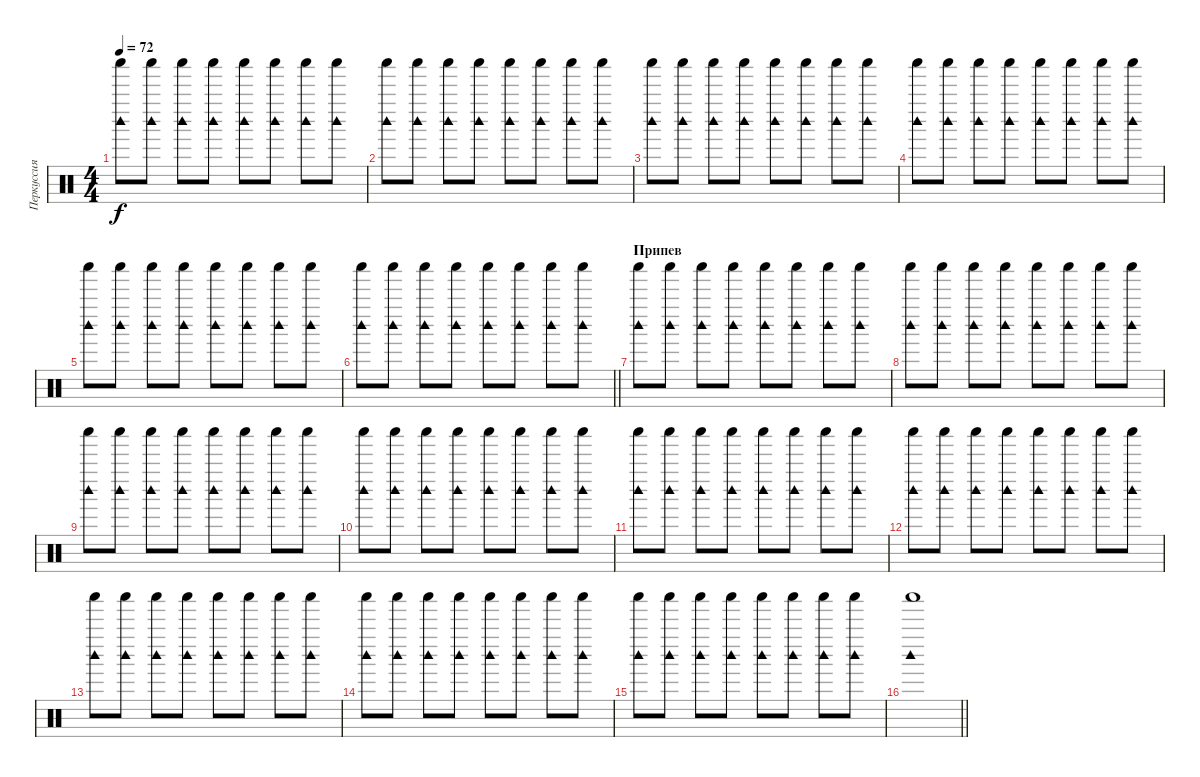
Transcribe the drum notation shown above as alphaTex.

\track ("Перкуссия" "Перкуссия") {instrument percussion}
\staff {score}
\articulation defaults
\ts (4 4)
\tempo 72
\clef neutral
\ks c
("Shaker (hit)" "Woodblock high (hit)").8{dy f} ("Shaker (hit)" "Woodblock high (hit)").8 ("Shaker (hit)" "Woodblock high (hit)").8 ("Shaker (hit)" "Woodblock high (hit)").8 ("Shaker (hit)" "Woodblock high (hit)").8 ("Shaker (hit)" "Woodblock high (hit)").8 ("Shaker (hit)" "Woodblock high (hit)").8 ("Shaker (hit)" "Woodblock high (hit)").8 |
("Shaker (hit)" "Woodblock high (hit)").8 ("Shaker (hit)" "Woodblock high (hit)").8 ("Shaker (hit)" "Woodblock high (hit)").8 ("Shaker (hit)" "Woodblock high (hit)").8 ("Shaker (hit)" "Woodblock high (hit)").8 ("Shaker (hit)" "Woodblock high (hit)").8 ("Shaker (hit)" "Woodblock high (hit)").8 ("Shaker (hit)" "Woodblock high (hit)").8 |
("Shaker (hit)" "Woodblock high (hit)").8 ("Shaker (hit)" "Woodblock high (hit)").8 ("Shaker (hit)" "Woodblock high (hit)").8 ("Shaker (hit)" "Woodblock high (hit)").8 ("Shaker (hit)" "Woodblock high (hit)").8 ("Shaker (hit)" "Woodblock high (hit)").8 ("Shaker (hit)" "Woodblock high (hit)").8 ("Shaker (hit)" "Woodblock high (hit)").8 |
("Shaker (hit)" "Woodblock high (hit)").8 ("Shaker (hit)" "Woodblock high (hit)").8 ("Shaker (hit)" "Woodblock high (hit)").8 ("Shaker (hit)" "Woodblock high (hit)").8 ("Shaker (hit)" "Woodblock high (hit)").8 ("Shaker (hit)" "Woodblock high (hit)").8 ("Shaker (hit)" "Woodblock high (hit)").8 ("Shaker (hit)" "Woodblock high (hit)").8 |
("Shaker (hit)" "Woodblock high (hit)").8 ("Shaker (hit)" "Woodblock high (hit)").8 ("Shaker (hit)" "Woodblock high (hit)").8 ("Shaker (hit)" "Woodblock high (hit)").8 ("Shaker (hit)" "Woodblock high (hit)").8 ("Shaker (hit)" "Woodblock high (hit)").8 ("Shaker (hit)" "Woodblock high (hit)").8 ("Shaker (hit)" "Woodblock high (hit)").8 |
\barLineRight lightlight
("Shaker (hit)" "Woodblock high (hit)").8 ("Shaker (hit)" "Woodblock high (hit)").8 ("Shaker (hit)" "Woodblock high (hit)").8 ("Shaker (hit)" "Woodblock high (hit)").8 ("Shaker (hit)" "Woodblock high (hit)").8 ("Shaker (hit)" "Woodblock high (hit)").8 ("Shaker (hit)" "Woodblock high (hit)").8 ("Shaker (hit)" "Woodblock high (hit)").8 |
\section ("" "Припев")
("Shaker (hit)" "Woodblock high (hit)").8{volume 10} ("Shaker (hit)" "Woodblock high (hit)").8 ("Shaker (hit)" "Woodblock high (hit)").8 ("Shaker (hit)" "Woodblock high (hit)").8 ("Shaker (hit)" "Woodblock high (hit)").8 ("Shaker (hit)" "Woodblock high (hit)").8 ("Shaker (hit)" "Woodblock high (hit)").8 ("Shaker (hit)" "Woodblock high (hit)").8 |
("Shaker (hit)" "Woodblock high (hit)").8 ("Shaker (hit)" "Woodblock high (hit)").8 ("Shaker (hit)" "Woodblock high (hit)").8 ("Shaker (hit)" "Woodblock high (hit)").8 ("Shaker (hit)" "Woodblock high (hit)").8 ("Shaker (hit)" "Woodblock high (hit)").8 ("Shaker (hit)" "Woodblock high (hit)").8 ("Shaker (hit)" "Woodblock high (hit)").8 |
("Shaker (hit)" "Woodblock high (hit)").8 ("Shaker (hit)" "Woodblock high (hit)").8 ("Shaker (hit)" "Woodblock high (hit)").8 ("Shaker (hit)" "Woodblock high (hit)").8 ("Shaker (hit)" "Woodblock high (hit)").8 ("Shaker (hit)" "Woodblock high (hit)").8 ("Shaker (hit)" "Woodblock high (hit)").8 ("Shaker (hit)" "Woodblock high (hit)").8 |
("Shaker (hit)" "Woodblock high (hit)").8 ("Shaker (hit)" "Woodblock high (hit)").8 ("Shaker (hit)" "Woodblock high (hit)").8 ("Shaker (hit)" "Woodblock high (hit)").8 ("Shaker (hit)" "Woodblock high (hit)").8 ("Shaker (hit)" "Woodblock high (hit)").8 ("Shaker (hit)" "Woodblock high (hit)").8 ("Shaker (hit)" "Woodblock high (hit)").8 |
("Shaker (hit)" "Woodblock high (hit)").8 ("Shaker (hit)" "Woodblock high (hit)").8 ("Shaker (hit)" "Woodblock high (hit)").8 ("Shaker (hit)" "Woodblock high (hit)").8 ("Shaker (hit)" "Woodblock high (hit)").8 ("Shaker (hit)" "Woodblock high (hit)").8 ("Shaker (hit)" "Woodblock high (hit)").8 ("Shaker (hit)" "Woodblock high (hit)").8 |
("Shaker (hit)" "Woodblock high (hit)").8 ("Shaker (hit)" "Woodblock high (hit)").8 ("Shaker (hit)" "Woodblock high (hit)").8 ("Shaker (hit)" "Woodblock high (hit)").8 ("Shaker (hit)" "Woodblock high (hit)").8 ("Shaker (hit)" "Woodblock high (hit)").8 ("Shaker (hit)" "Woodblock high (hit)").8 ("Shaker (hit)" "Woodblock high (hit)").8 |
("Shaker (hit)" "Woodblock high (hit)").8 ("Shaker (hit)" "Woodblock high (hit)").8 ("Shaker (hit)" "Woodblock high (hit)").8 ("Shaker (hit)" "Woodblock high (hit)").8 ("Shaker (hit)" "Woodblock high (hit)").8 ("Shaker (hit)" "Woodblock high (hit)").8 ("Shaker (hit)" "Woodblock high (hit)").8 ("Shaker (hit)" "Woodblock high (hit)").8 |
("Shaker (hit)" "Woodblock high (hit)").8 ("Shaker (hit)" "Woodblock high (hit)").8 ("Shaker (hit)" "Woodblock high (hit)").8 ("Shaker (hit)" "Woodblock high (hit)").8 ("Shaker (hit)" "Woodblock high (hit)").8 ("Shaker (hit)" "Woodblock high (hit)").8 ("Shaker (hit)" "Woodblock high (hit)").8 ("Shaker (hit)" "Woodblock high (hit)").8 |
("Shaker (hit)" "Woodblock high (hit)").8{volume 10} ("Shaker (hit)" "Woodblock high (hit)").8 ("Shaker (hit)" "Woodblock high (hit)").8 ("Shaker (hit)" "Woodblock high (hit)").8 ("Shaker (hit)" "Woodblock high (hit)").8 ("Shaker (hit)" "Woodblock high (hit)").8 ("Shaker (hit)" "Woodblock high (hit)").8 ("Shaker (hit)" "Woodblock high (hit)").8 |
\barLineRight lightlight
("Shaker (hit)" "Woodblock high (hit)").1
